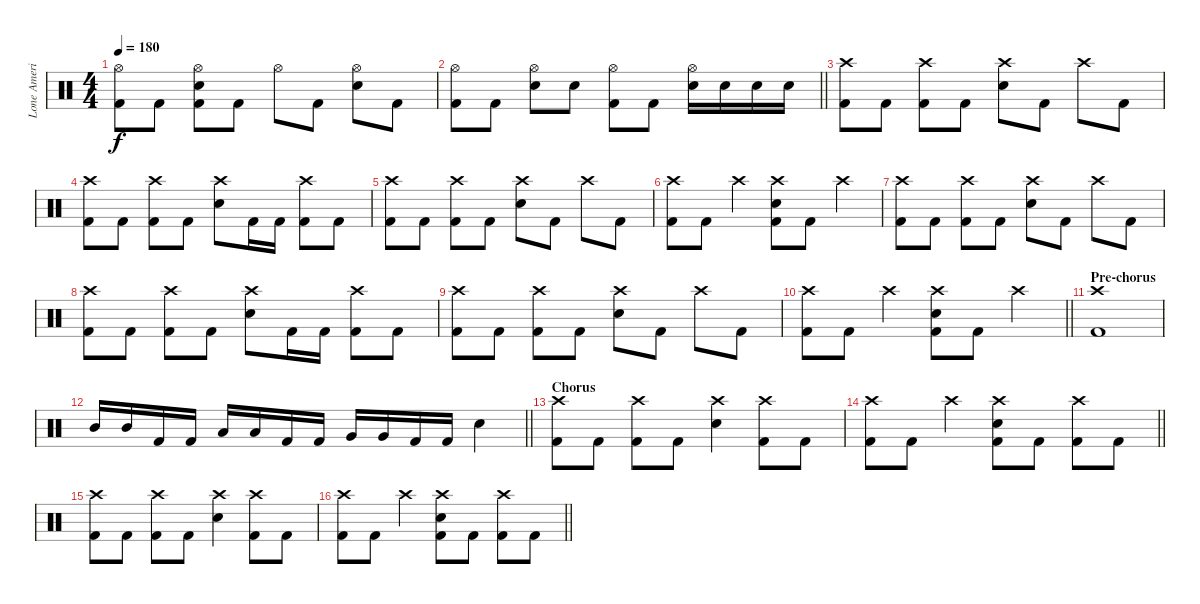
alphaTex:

\track ("Lone America" "Lone Ameri") {instrument percussion}
\staff {score}
\articulation defaults
\ts (4 4)
\tempo 180
\clef neutral
\ks c
("Hi-Hat (open)" "Kick (hit) 2").8{dy f} "Kick (hit) 2".8 ("Hi-Hat (open)" "Electric Snare (hit)" "Kick (hit) 2").8 "Kick (hit) 2".8 "Hi-Hat (open)".8 "Kick (hit) 2".8 ("Hi-Hat (open)" "Electric Snare (hit)").8 "Kick (hit) 2".8 |
\barLineRight lightlight
("Hi-Hat (open)" "Kick (hit) 2").8 "Kick (hit) 2".8 ("Hi-Hat (open)" "Electric Snare (hit)").8 "Electric Snare (hit)".8 ("Hi-Hat (open)" "Kick (hit) 2").8 "Kick (hit) 2".8 ("Hi-Hat (open)" "Electric Snare (hit)").16 "Electric Snare (hit)".16 "Electric Snare (hit)".16 "Electric Snare (hit)".16 |
("Crash high (hit)" "Kick (hit) 2").8 "Kick (hit) 2".8 ("Crash high (hit)" "Kick (hit) 2").8 "Kick (hit) 2".8 ("Crash high (hit)" "Electric Snare (hit)").8 "Kick (hit) 2".8 "Crash high (hit)".8 "Kick (hit) 2".8 |
("Crash high (hit)" "Kick (hit) 2").8 "Kick (hit) 2".8 ("Crash high (hit)" "Kick (hit) 2").8 "Kick (hit) 2".8 ("Crash high (hit)" "Electric Snare (hit)").8 "Kick (hit) 2".16 "Kick (hit) 2".16 ("Crash high (hit)" "Kick (hit) 2").8 "Kick (hit) 2".8 |
("Crash high (hit)" "Kick (hit) 2").8 "Kick (hit) 2".8 ("Crash high (hit)" "Kick (hit) 2").8 "Kick (hit) 2".8 ("Crash high (hit)" "Electric Snare (hit)").8 "Kick (hit) 2".8 "Crash high (hit)".8 "Kick (hit) 2".8 |
("Crash high (hit)" "Kick (hit) 2").8 "Kick (hit) 2".8 "Crash high (hit)".4 ("Crash high (hit)" "Electric Snare (hit)" "Kick (hit) 2").8 "Kick (hit) 2".8 "Crash high (hit)".4 |
("Crash high (hit)" "Kick (hit) 2").8 "Kick (hit) 2".8 ("Crash high (hit)" "Kick (hit) 2").8 "Kick (hit) 2".8 ("Crash high (hit)" "Electric Snare (hit)").8 "Kick (hit) 2".8 "Crash high (hit)".8 "Kick (hit) 2".8 |
("Crash high (hit)" "Kick (hit) 2").8 "Kick (hit) 2".8 ("Crash high (hit)" "Kick (hit) 2").8 "Kick (hit) 2".8 ("Crash high (hit)" "Electric Snare (hit)").8 "Kick (hit) 2".16 "Kick (hit) 2".16 ("Crash high (hit)" "Kick (hit) 2").8 "Kick (hit) 2".8 |
("Crash high (hit)" "Kick (hit) 2").8 "Kick (hit) 2".8 ("Crash high (hit)" "Kick (hit) 2").8 "Kick (hit) 2".8 ("Crash high (hit)" "Electric Snare (hit)").8 "Kick (hit) 2".8 "Crash high (hit)".8 "Kick (hit) 2".8 |
\barLineRight lightlight
("Crash high (hit)" "Kick (hit) 2").8 "Kick (hit) 2".8 "Crash high (hit)".4 ("Crash high (hit)" "Electric Snare (hit)" "Kick (hit) 2").8 "Kick (hit) 2".8 "Crash high (hit)".4 |
\section ("" "Pre-chorus")
("Crash high (hit)" "Kick (hit) 2").1 |
\barLineRight lightlight "Mid Tom (hit)".16 "Mid Tom (hit)".16 "Kick (hit) 2".16 "Kick (hit) 2".16 "Low Tom (hit)".16 "Low Tom (hit)".16 "Kick (hit) 2".16 "Kick (hit) 2".16 "Very Low Tom (hit)".16 "Very Low Tom (hit)".16 "Kick (hit) 2".16 "Kick (hit) 2".16 "Electric Snare (hit)".4
|
\section ("" "Chorus")
("Crash high (hit)" "Kick (hit) 2").8 "Kick (hit) 2".8 ("Crash high (hit)" "Kick (hit) 2").8 "Kick (hit) 2".8 ("Crash high (hit)" "Electric Snare (hit)").4 ("Crash high (hit)" "Kick (hit) 2").8 "Kick (hit) 2".8 |
\barLineRight lightlight
("Crash high (hit)" "Kick (hit) 2").8 "Kick (hit) 2".8 "Crash high (hit)".4 ("Crash high (hit)" "Electric Snare (hit)" "Kick (hit) 2").8 "Kick (hit) 2".8 ("Crash high (hit)" "Kick (hit) 2").8 "Kick (hit) 2".8 |
("Crash high (hit)" "Kick (hit) 2").8 "Kick (hit) 2".8 ("Crash high (hit)" "Kick (hit) 2").8 "Kick (hit) 2".8 ("Crash high (hit)" "Electric Snare (hit)").4 ("Crash high (hit)" "Kick (hit) 2").8 "Kick (hit) 2".8 |
\barLineRight lightlight
("Crash high (hit)" "Kick (hit) 2").8 "Kick (hit) 2".8 "Crash high (hit)".4 ("Crash high (hit)" "Electric Snare (hit)" "Kick (hit) 2").8 "Kick (hit) 2".8 ("Crash high (hit)" "Kick (hit) 2").8 "Kick (hit) 2".8
